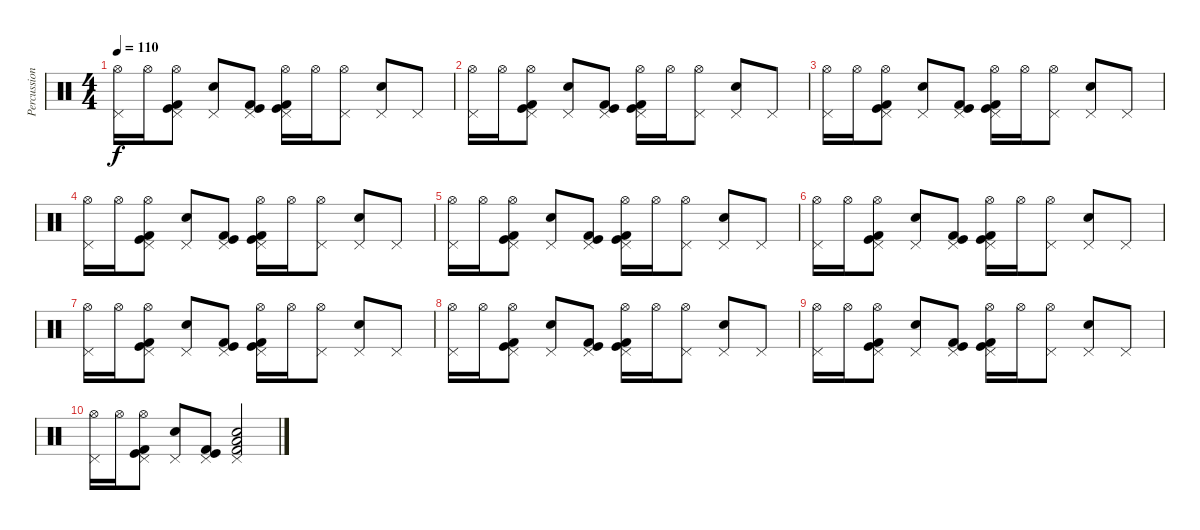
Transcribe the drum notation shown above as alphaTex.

\track ("Percussion" "Percussion") {instrument percussion}
\staff {score}
\articulation defaults
\ts (4 4)
\tempo 110
\clef neutral
\ks c
("Hi-Hat (open)" "Pedal Hi-Hat (hit)").16{dy f} "Hi-Hat (open)".16 ("Hi-Hat (open)" "Pedal Hi-Hat (hit)" "Kick (hit)" "Kick (hit) 2").8 ("Pedal Hi-Hat (hit)" "Electric Snare (hit)").8 ("Pedal Hi-Hat (hit)" "Kick (hit)" "Kick (hit) 2").8 ("Hi-Hat (open)" "Pedal Hi-Hat (hit)" "Kick (hit)" "Kick (hit) 2").16 "Hi-Hat (open)".16 ("Hi-Hat (open)" "Pedal Hi-Hat (hit)").8 ("Pedal Hi-Hat (hit)" "Electric Snare (hit)").8 "Pedal Hi-Hat (hit)".8 |
("Hi-Hat (open)" "Pedal Hi-Hat (hit)").16 "Hi-Hat (open)".16 ("Hi-Hat (open)" "Pedal Hi-Hat (hit)" "Kick (hit)" "Kick (hit) 2").8 ("Pedal Hi-Hat (hit)" "Electric Snare (hit)").8 ("Pedal Hi-Hat (hit)" "Kick (hit)" "Kick (hit) 2").8 ("Hi-Hat (open)" "Pedal Hi-Hat (hit)" "Kick (hit)" "Kick (hit) 2").16 "Hi-Hat (open)".16 ("Hi-Hat (open)" "Pedal Hi-Hat (hit)").8 ("Pedal Hi-Hat (hit)" "Electric Snare (hit)").8 "Pedal Hi-Hat (hit)".8 |
("Hi-Hat (open)" "Pedal Hi-Hat (hit)").16 "Hi-Hat (open)".16 ("Hi-Hat (open)" "Pedal Hi-Hat (hit)" "Kick (hit)" "Kick (hit) 2").8 ("Pedal Hi-Hat (hit)" "Electric Snare (hit)").8 ("Pedal Hi-Hat (hit)" "Kick (hit)" "Kick (hit) 2").8 ("Hi-Hat (open)" "Pedal Hi-Hat (hit)" "Kick (hit)" "Kick (hit) 2").16 "Hi-Hat (open)".16 ("Hi-Hat (open)" "Pedal Hi-Hat (hit)").8 ("Pedal Hi-Hat (hit)" "Electric Snare (hit)").8 "Pedal Hi-Hat (hit)".8 |
("Hi-Hat (open)" "Pedal Hi-Hat (hit)").16 "Hi-Hat (open)".16 ("Hi-Hat (open)" "Pedal Hi-Hat (hit)" "Kick (hit)" "Kick (hit) 2").8 ("Pedal Hi-Hat (hit)" "Electric Snare (hit)").8 ("Pedal Hi-Hat (hit)" "Kick (hit)" "Kick (hit) 2").8 ("Hi-Hat (open)" "Pedal Hi-Hat (hit)" "Kick (hit)" "Kick (hit) 2").16 "Hi-Hat (open)".16 ("Hi-Hat (open)" "Pedal Hi-Hat (hit)").8 ("Pedal Hi-Hat (hit)" "Electric Snare (hit)").8 "Pedal Hi-Hat (hit)".8 |
("Hi-Hat (open)" "Pedal Hi-Hat (hit)").16 "Hi-Hat (open)".16 ("Hi-Hat (open)" "Pedal Hi-Hat (hit)" "Kick (hit)" "Kick (hit) 2").8 ("Pedal Hi-Hat (hit)" "Electric Snare (hit)").8 ("Pedal Hi-Hat (hit)" "Kick (hit)" "Kick (hit) 2").8 ("Hi-Hat (open)" "Pedal Hi-Hat (hit)" "Kick (hit)" "Kick (hit) 2").16 "Hi-Hat (open)".16 ("Hi-Hat (open)" "Pedal Hi-Hat (hit)").8 ("Pedal Hi-Hat (hit)" "Electric Snare (hit)").8 "Pedal Hi-Hat (hit)".8 |
("Hi-Hat (open)" "Pedal Hi-Hat (hit)").16 "Hi-Hat (open)".16 ("Hi-Hat (open)" "Pedal Hi-Hat (hit)" "Kick (hit)" "Kick (hit) 2").8 ("Pedal Hi-Hat (hit)" "Electric Snare (hit)").8 ("Pedal Hi-Hat (hit)" "Kick (hit)" "Kick (hit) 2").8 ("Hi-Hat (open)" "Pedal Hi-Hat (hit)" "Kick (hit)" "Kick (hit) 2").16 "Hi-Hat (open)".16 ("Hi-Hat (open)" "Pedal Hi-Hat (hit)").8 ("Pedal Hi-Hat (hit)" "Electric Snare (hit)").8 "Pedal Hi-Hat (hit)".8 |
("Hi-Hat (open)" "Pedal Hi-Hat (hit)").16 "Hi-Hat (open)".16 ("Hi-Hat (open)" "Pedal Hi-Hat (hit)" "Kick (hit)" "Kick (hit) 2").8 ("Pedal Hi-Hat (hit)" "Electric Snare (hit)").8 ("Pedal Hi-Hat (hit)" "Kick (hit)" "Kick (hit) 2").8 ("Hi-Hat (open)" "Pedal Hi-Hat (hit)" "Kick (hit)" "Kick (hit) 2").16 "Hi-Hat (open)".16 ("Hi-Hat (open)" "Pedal Hi-Hat (hit)").8 ("Pedal Hi-Hat (hit)" "Electric Snare (hit)").8 "Pedal Hi-Hat (hit)".8 |
("Hi-Hat (open)" "Pedal Hi-Hat (hit)").16 "Hi-Hat (open)".16 ("Hi-Hat (open)" "Pedal Hi-Hat (hit)" "Kick (hit)" "Kick (hit) 2").8 ("Pedal Hi-Hat (hit)" "Electric Snare (hit)").8 ("Pedal Hi-Hat (hit)" "Kick (hit)" "Kick (hit) 2").8 ("Hi-Hat (open)" "Pedal Hi-Hat (hit)" "Kick (hit)" "Kick (hit) 2").16 "Hi-Hat (open)".16 ("Hi-Hat (open)" "Pedal Hi-Hat (hit)").8 ("Pedal Hi-Hat (hit)" "Electric Snare (hit)").8 "Pedal Hi-Hat (hit)".8 |
("Hi-Hat (open)" "Pedal Hi-Hat (hit)").16 "Hi-Hat (open)".16 ("Hi-Hat (open)" "Pedal Hi-Hat (hit)" "Kick (hit)" "Kick (hit) 2").8 ("Pedal Hi-Hat (hit)" "Electric Snare (hit)").8 ("Pedal Hi-Hat (hit)" "Kick (hit)" "Kick (hit) 2").8 ("Hi-Hat (open)" "Pedal Hi-Hat (hit)" "Kick (hit)" "Kick (hit) 2").16 "Hi-Hat (open)".16 ("Hi-Hat (open)" "Pedal Hi-Hat (hit)").8 ("Pedal Hi-Hat (hit)" "Electric Snare (hit)").8 "Pedal Hi-Hat (hit)".8 |
("Hi-Hat (open)" "Pedal Hi-Hat (hit)").16 "Hi-Hat (open)".16 ("Hi-Hat (open)" "Pedal Hi-Hat (hit)" "Kick (hit)" "Kick (hit) 2").8 ("Pedal Hi-Hat (hit)" "Electric Snare (hit)").8 ("Pedal Hi-Hat (hit)" "Kick (hit)" "Kick (hit) 2").8 ("Pedal Hi-Hat (hit)" "Electric Snare (hit)" "Low Floor Tom (hit)" "Kick (hit) 2").2
